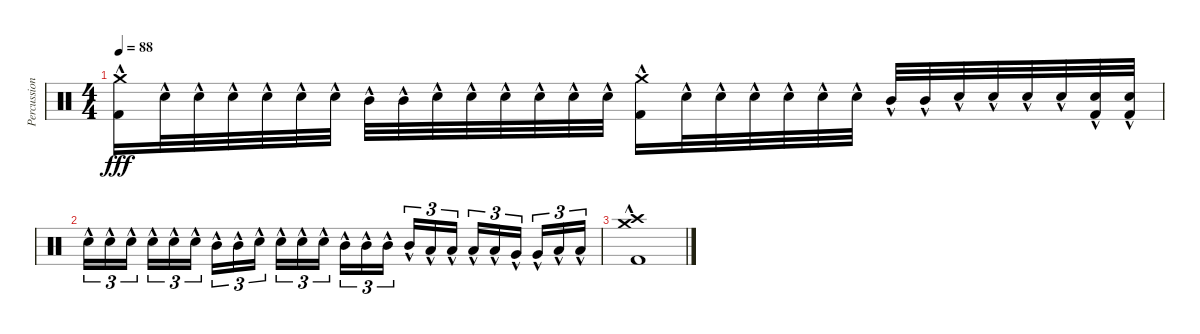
\track ("Percussion" "Percussion") {instrument percussion}
\staff {score}
\articulation defaults
\ts (4 4)
\tempo 88
\clef neutral
\ks c
("Kick (hit) 2"{hac} "Crash medium (hit)"{hac}).16{dy fff} "Electric Snare (hit)"{hac}.32 "Electric Snare (hit)"{hac}.32 "Electric Snare (hit)"{hac}.32 "Electric Snare (hit)"{hac}.32 "Electric Snare (hit)"{hac}.32 "Electric Snare (hit)"{hac}.32 "Mid Tom (hit)"{hac}.32 "Mid Tom (hit)"{hac}.32 "Electric Snare (hit)"{hac}.32 "Electric Snare (hit)"{hac}.32 "Electric Snare (hit)"{hac}.32 "Electric Snare (hit)"{hac}.32 "Electric Snare (hit)"{hac}.32 "Electric Snare (hit)"{hac}.32 ("Kick (hit) 2"{hac} "Crash medium (hit)"{hac}).16 "Electric Snare (hit)"{hac}.32 "Electric Snare (hit)"{hac}.32 "Electric Snare (hit)"{hac}.32 "Electric Snare (hit)"{hac}.32 "Electric Snare (hit)"{hac}.32 "Electric Snare (hit)"{hac}.32 "Mid Tom (hit)"{hac}.32 "Mid Tom (hit)"{hac}.32 "Electric Snare (hit)"{hac}.32 "Electric Snare (hit)"{hac}.32 "Electric Snare (hit)"{hac}.32 "Electric Snare (hit)"{hac}.32 ("Kick (hit) 2"{hac} "Electric Snare (hit)"{hac}).32 ("Kick (hit) 2"{hac} "Electric Snare (hit)"{hac}).32 |
"Electric Snare (hit)"{hac}.16{tu (3 2)} "Electric Snare (hit)"{hac}.16{tu (3 2)} "Electric Snare (hit)"{hac}.16{tu (3 2) beam splitsecondary} "Electric Snare (hit)"{hac}.16{tu (3 2)} "Electric Snare (hit)"{hac}.16{tu (3 2)} "Electric Snare (hit)"{hac}.16{tu (3 2)} "Mid Tom (hit)"{hac}.16{tu (3 2)} "Mid Tom (hit)"{hac}.16{tu (3 2)} "Electric Snare (hit)"{hac}.16{tu (3 2) beam splitsecondary} "Electric Snare (hit)"{hac}.16{tu (3 2)} "Electric Snare (hit)"{hac}.16{tu (3 2)} "Electric Snare (hit)"{hac}.16{tu (3 2)} "Mid Tom (hit)"{hac}.16{tu (3 2)} "Mid Tom (hit)"{hac}.16{tu (3 2)} "Mid Tom (hit)"{hac}.16{tu (3 2) beam splitsecondary} "Mid Tom (hit)"{hac}.16{tu (3 2)} "Low Tom (hit)"{hac}.16{tu (3 2)} "Low Tom (hit)"{hac}.16{tu (3 2)} "Low Tom (hit)"{hac}.16{tu (3 2)} "Low Tom (hit)"{hac}.16{tu (3 2)} "Very Low Tom (hit)"{hac}.16{tu (3 2) beam splitsecondary} "Very Low Tom (hit)"{hac}.16{tu (3 2)} "Low Floor Tom (hit)"{hac}.16{tu (3 2)} "Low Floor Tom (hit)"{hac}.16{tu (3 2)} |
("Kick (hit) 2"{hac} "Crash medium (hit)" "Crash high (hit)").1
